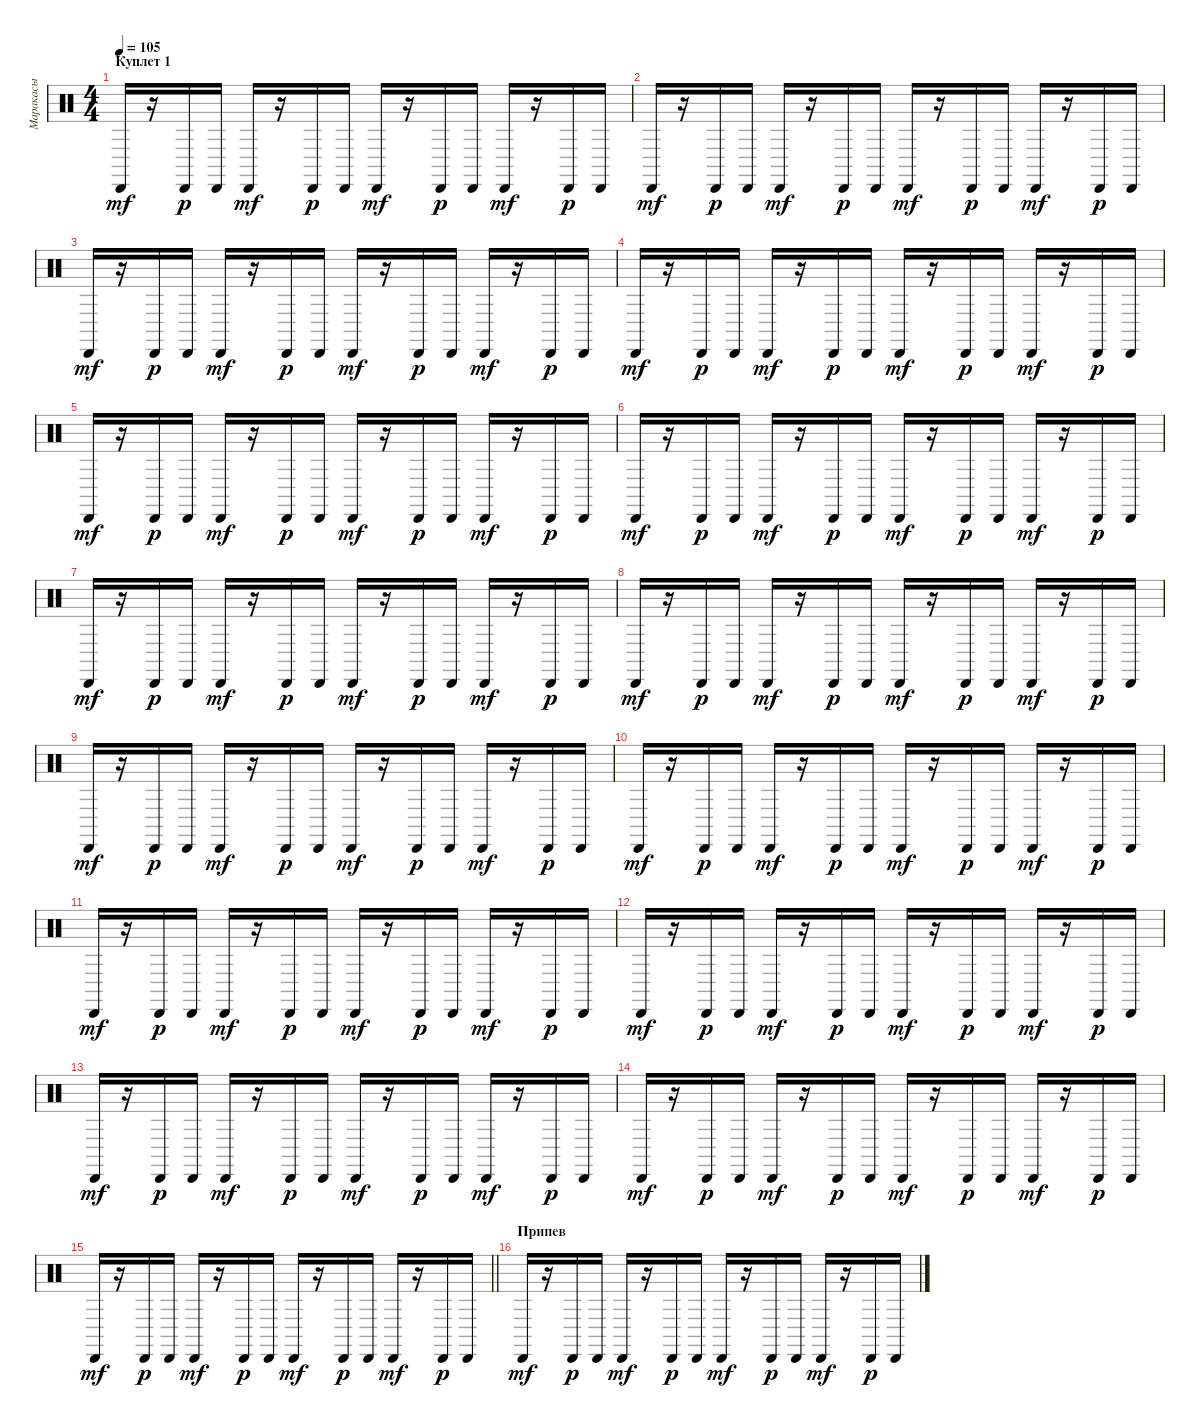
\track ("Маракасы" "Маракасы") {instrument percussion}
\staff {score}
\articulation defaults
\ts (4 4)
\section ("" "Куплет 1")
\tempo 105
\clef neutral
\ks c "Cabasa (hit)".16{dy mf}
r.16 "Cabasa (hit)".16{dy p} "Cabasa (hit)".16 "Cabasa (hit)".16{dy mf} r.16 "Cabasa (hit)".16{dy p} "Cabasa (hit)".16 "Cabasa (hit)".16{dy mf} r.16 "Cabasa (hit)".16{dy p} "Cabasa (hit)".16 "Cabasa (hit)".16{dy mf} r.16 "Cabasa (hit)".16{dy p} "Cabasa (hit)".16 |
"Cabasa (hit)".16{dy mf} r.16 "Cabasa (hit)".16{dy p} "Cabasa (hit)".16 "Cabasa (hit)".16{dy mf} r.16 "Cabasa (hit)".16{dy p} "Cabasa (hit)".16 "Cabasa (hit)".16{dy mf} r.16 "Cabasa (hit)".16{dy p} "Cabasa (hit)".16 "Cabasa (hit)".16{dy mf} r.16 "Cabasa (hit)".16{dy p} "Cabasa (hit)".16 |
"Cabasa (hit)".16{dy mf} r.16 "Cabasa (hit)".16{dy p} "Cabasa (hit)".16 "Cabasa (hit)".16{dy mf} r.16 "Cabasa (hit)".16{dy p} "Cabasa (hit)".16 "Cabasa (hit)".16{dy mf} r.16 "Cabasa (hit)".16{dy p} "Cabasa (hit)".16 "Cabasa (hit)".16{dy mf} r.16 "Cabasa (hit)".16{dy p} "Cabasa (hit)".16 |
"Cabasa (hit)".16{dy mf} r.16 "Cabasa (hit)".16{dy p} "Cabasa (hit)".16 "Cabasa (hit)".16{dy mf} r.16 "Cabasa (hit)".16{dy p} "Cabasa (hit)".16 "Cabasa (hit)".16{dy mf} r.16 "Cabasa (hit)".16{dy p} "Cabasa (hit)".16 "Cabasa (hit)".16{dy mf} r.16 "Cabasa (hit)".16{dy p} "Cabasa (hit)".16 |
"Cabasa (hit)".16{dy mf} r.16 "Cabasa (hit)".16{dy p} "Cabasa (hit)".16 "Cabasa (hit)".16{dy mf} r.16 "Cabasa (hit)".16{dy p} "Cabasa (hit)".16 "Cabasa (hit)".16{dy mf} r.16 "Cabasa (hit)".16{dy p} "Cabasa (hit)".16 "Cabasa (hit)".16{dy mf} r.16 "Cabasa (hit)".16{dy p} "Cabasa (hit)".16 |
"Cabasa (hit)".16{dy mf} r.16 "Cabasa (hit)".16{dy p} "Cabasa (hit)".16 "Cabasa (hit)".16{dy mf} r.16 "Cabasa (hit)".16{dy p} "Cabasa (hit)".16 "Cabasa (hit)".16{dy mf} r.16 "Cabasa (hit)".16{dy p} "Cabasa (hit)".16 "Cabasa (hit)".16{dy mf} r.16 "Cabasa (hit)".16{dy p} "Cabasa (hit)".16 |
"Cabasa (hit)".16{dy mf} r.16 "Cabasa (hit)".16{dy p} "Cabasa (hit)".16 "Cabasa (hit)".16{dy mf} r.16 "Cabasa (hit)".16{dy p} "Cabasa (hit)".16 "Cabasa (hit)".16{dy mf} r.16 "Cabasa (hit)".16{dy p} "Cabasa (hit)".16 "Cabasa (hit)".16{dy mf} r.16 "Cabasa (hit)".16{dy p} "Cabasa (hit)".16 |
"Cabasa (hit)".16{dy mf} r.16 "Cabasa (hit)".16{dy p} "Cabasa (hit)".16 "Cabasa (hit)".16{dy mf} r.16 "Cabasa (hit)".16{dy p} "Cabasa (hit)".16 "Cabasa (hit)".16{dy mf} r.16 "Cabasa (hit)".16{dy p} "Cabasa (hit)".16 "Cabasa (hit)".16{dy mf} r.16 "Cabasa (hit)".16{dy p} "Cabasa (hit)".16 |
"Cabasa (hit)".16{dy mf} r.16 "Cabasa (hit)".16{dy p} "Cabasa (hit)".16 "Cabasa (hit)".16{dy mf} r.16 "Cabasa (hit)".16{dy p} "Cabasa (hit)".16 "Cabasa (hit)".16{dy mf} r.16 "Cabasa (hit)".16{dy p} "Cabasa (hit)".16 "Cabasa (hit)".16{dy mf} r.16 "Cabasa (hit)".16{dy p} "Cabasa (hit)".16 |
"Cabasa (hit)".16{dy mf} r.16 "Cabasa (hit)".16{dy p} "Cabasa (hit)".16 "Cabasa (hit)".16{dy mf} r.16 "Cabasa (hit)".16{dy p} "Cabasa (hit)".16 "Cabasa (hit)".16{dy mf} r.16 "Cabasa (hit)".16{dy p} "Cabasa (hit)".16 "Cabasa (hit)".16{dy mf} r.16 "Cabasa (hit)".16{dy p} "Cabasa (hit)".16 |
"Cabasa (hit)".16{dy mf} r.16 "Cabasa (hit)".16{dy p} "Cabasa (hit)".16 "Cabasa (hit)".16{dy mf} r.16 "Cabasa (hit)".16{dy p} "Cabasa (hit)".16 "Cabasa (hit)".16{dy mf} r.16 "Cabasa (hit)".16{dy p} "Cabasa (hit)".16 "Cabasa (hit)".16{dy mf} r.16 "Cabasa (hit)".16{dy p} "Cabasa (hit)".16 |
"Cabasa (hit)".16{dy mf} r.16 "Cabasa (hit)".16{dy p} "Cabasa (hit)".16 "Cabasa (hit)".16{dy mf} r.16 "Cabasa (hit)".16{dy p} "Cabasa (hit)".16 "Cabasa (hit)".16{dy mf} r.16 "Cabasa (hit)".16{dy p} "Cabasa (hit)".16 "Cabasa (hit)".16{dy mf} r.16 "Cabasa (hit)".16{dy p} "Cabasa (hit)".16 |
"Cabasa (hit)".16{dy mf} r.16 "Cabasa (hit)".16{dy p} "Cabasa (hit)".16 "Cabasa (hit)".16{dy mf} r.16 "Cabasa (hit)".16{dy p} "Cabasa (hit)".16 "Cabasa (hit)".16{dy mf} r.16 "Cabasa (hit)".16{dy p} "Cabasa (hit)".16 "Cabasa (hit)".16{dy mf} r.16 "Cabasa (hit)".16{dy p} "Cabasa (hit)".16 |
"Cabasa (hit)".16{dy mf} r.16 "Cabasa (hit)".16{dy p} "Cabasa (hit)".16 "Cabasa (hit)".16{dy mf} r.16 "Cabasa (hit)".16{dy p} "Cabasa (hit)".16 "Cabasa (hit)".16{dy mf} r.16 "Cabasa (hit)".16{dy p} "Cabasa (hit)".16 "Cabasa (hit)".16{dy mf} r.16 "Cabasa (hit)".16{dy p} "Cabasa (hit)".16 |
\barLineRight lightlight "Cabasa (hit)".16{dy mf}
r.16 "Cabasa (hit)".16{dy p} "Cabasa (hit)".16 "Cabasa (hit)".16{dy mf} r.16 "Cabasa (hit)".16{dy p} "Cabasa (hit)".16 "Cabasa (hit)".16{dy mf} r.16 "Cabasa (hit)".16{dy p} "Cabasa (hit)".16 "Cabasa (hit)".16{dy mf} r.16 "Cabasa (hit)".16{dy p} "Cabasa (hit)".16 |
\section ("" "Припев")
"Cabasa (hit)".16{dy mf} r.16 "Cabasa (hit)".16{dy p} "Cabasa (hit)".16 "Cabasa (hit)".16{dy mf} r.16 "Cabasa (hit)".16{dy p} "Cabasa (hit)".16 "Cabasa (hit)".16{dy mf} r.16 "Cabasa (hit)".16{dy p} "Cabasa (hit)".16 "Cabasa (hit)".16{dy mf} r.16 "Cabasa (hit)".16{dy p} "Cabasa (hit)".16
